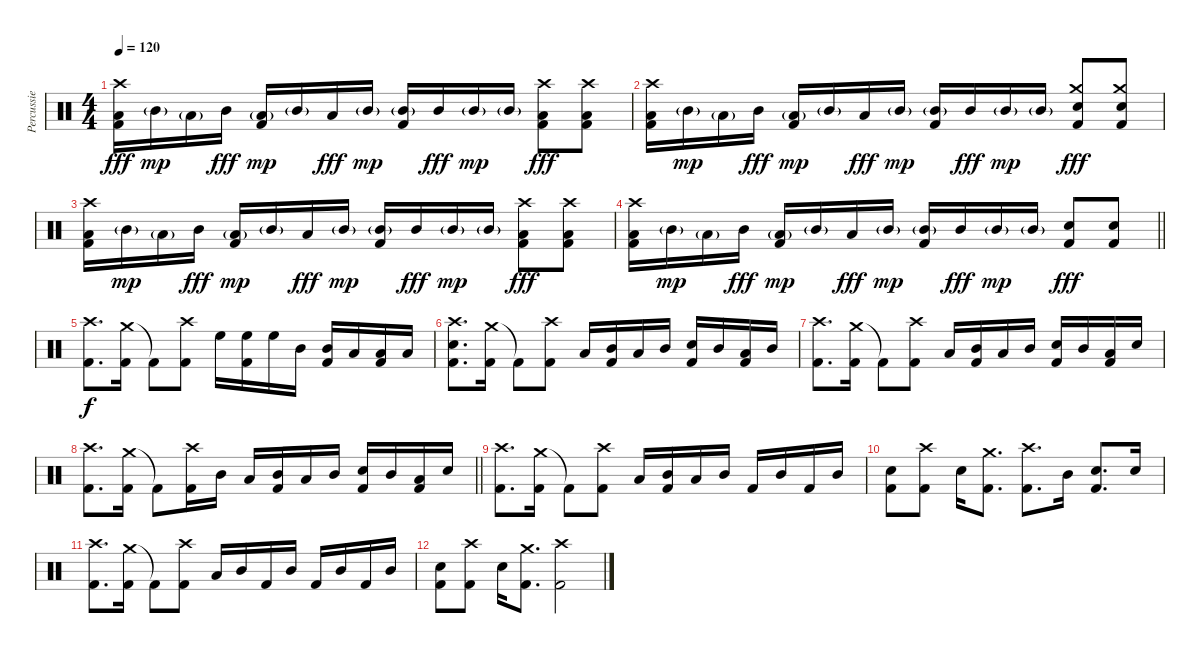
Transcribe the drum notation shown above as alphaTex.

\track ("Percussie" "Percussie") {instrument percussion}
\staff {score}
\articulation defaults
\ts (4 4)
\tempo 120
\clef neutral
\ks c
("Crash high (hit)" "Low Tom (hit)" "Kick (hit) 2").16{dy fff} "Mid Tom (hit)"{g}.16{dy mp} "Low Tom (hit)"{g}.16 "Mid Tom (hit)".16{dy fff} ("Low Tom (hit)"{g} "Kick (hit) 2").16{dy mp} "Mid Tom (hit)"{g}.16 "Low Tom (hit)".16{dy fff} "Mid Tom (hit)"{g}.16{dy mp} ("Mid Tom (hit)"{g} "Kick (hit) 2").16 "Mid Tom (hit)".16{dy fff} "Mid Tom (hit)"{g}.16{dy mp} "Mid Tom (hit)"{g}.16 ("Crash high (hit)" "Low Tom (hit)" "Kick (hit) 2").8{dy fff} ("Crash high (hit)" "Low Tom (hit)" "Kick (hit) 2").8 |
("Crash high (hit)" "Low Tom (hit)" "Kick (hit) 2").16 "Mid Tom (hit)"{g}.16{dy mp} "Low Tom (hit)"{g}.16 "Mid Tom (hit)".16{dy fff} ("Low Tom (hit)"{g} "Kick (hit) 2").16{dy mp} "Mid Tom (hit)"{g}.16 "Low Tom (hit)".16{dy fff} "Mid Tom (hit)"{g}.16{dy mp} ("Mid Tom (hit)"{g} "Kick (hit) 2").16 "Mid Tom (hit)".16{dy fff} "Mid Tom (hit)"{g}.16{dy mp} "Mid Tom (hit)"{g}.16 ("Crash medium (hit)" "Snare (hit) 2" "Kick (hit) 2").8{dy fff} ("Crash medium (hit)" "Snare (hit) 2" "Kick (hit) 2").8 |
("Crash high (hit)" "Low Tom (hit)" "Kick (hit) 2").16 "Mid Tom (hit)"{g}.16{dy mp} "Low Tom (hit)"{g}.16 "Mid Tom (hit)".16{dy fff} ("Low Tom (hit)"{g} "Kick (hit) 2").16{dy mp} "Mid Tom (hit)"{g}.16 "Low Tom (hit)".16{dy fff} "Mid Tom (hit)"{g}.16{dy mp} ("Mid Tom (hit)"{g} "Kick (hit) 2").16 "Mid Tom (hit)".16{dy fff} "Mid Tom (hit)"{g}.16{dy mp} "Mid Tom (hit)"{g}.16 ("Crash high (hit)" "Low Tom (hit)" "Kick (hit) 2").8{dy fff} ("Crash high (hit)" "Low Tom (hit)" "Kick (hit) 2").8 |
\barLineRight lightlight
("Crash high (hit)" "Low Tom (hit)" "Kick (hit) 2").16 "Mid Tom (hit)"{g}.16{dy mp} "Low Tom (hit)"{g}.16 "Mid Tom (hit)".16{dy fff} ("Low Tom (hit)"{g} "Kick (hit) 2").16{dy mp} "Mid Tom (hit)"{g}.16 "Low Tom (hit)".16{dy fff} "Mid Tom (hit)"{g}.16{dy mp} ("Mid Tom (hit)"{g} "Kick (hit) 2").16 "Mid Tom (hit)".16{dy fff} "Mid Tom (hit)"{g}.16{dy mp} "Mid Tom (hit)"{g}.16 ("Snare (hit) 2" "Kick (hit) 2").8{dy fff} ("Snare (hit) 2" "Kick (hit) 2").8 |
("Crash high (hit)" "Kick (hit) 2").8{d dy f} ("Crash medium (hit)" "Kick (hit) 2").16 "Kick (hit) 2"{t}.8 ("Crash high (hit)" "Kick (hit) 2").8 "High Floor Tom (hit)".16 ("High Floor Tom (hit)" "Kick (hit) 2").16 "High Floor Tom (hit)".16 "Mid Tom (hit)".16 ("Mid Tom (hit)" "Kick (hit) 2").16 "Low Tom (hit)".16 ("Low Tom (hit)" "Kick (hit) 2").16 "Low Tom (hit)".16 |
("Crash high (hit)" "Snare (hit) 2" "Kick (hit) 2").8{d} ("Crash medium (hit)" "Kick (hit) 2").16 "Kick (hit) 2"{t}.8 ("Crash high (hit)" "Kick (hit) 2").8 "Low Tom (hit)".16 ("Mid Tom (hit)" "Kick (hit) 2").16 "Low Tom (hit)".16 "Mid Tom (hit)".16 ("Snare (hit) 2" "Kick (hit) 2").16 "Mid Tom (hit)".16 ("Low Tom (hit)" "Kick (hit) 2").16 "Mid Tom (hit)".16 |
("Crash high (hit)" "Kick (hit) 2").8{d} ("Crash medium (hit)" "Kick (hit) 2").16 "Kick (hit) 2"{t}.8 ("Crash high (hit)" "Kick (hit) 2").8 "Low Tom (hit)".16 ("Mid Tom (hit)" "Kick (hit) 2").16 "Low Tom (hit)".16 "Mid Tom (hit)".16 ("Snare (hit) 2" "Kick (hit) 2").16 "Mid Tom (hit)".16 ("Low Tom (hit)" "Kick (hit) 2").16 "Snare (hit) 2".16 |
\barLineRight lightlight
("Crash high (hit)" "Kick (hit) 2").8{d} ("Crash medium (hit)" "Kick (hit) 2").16 "Kick (hit) 2"{t}.8 ("Crash high (hit)" "Kick (hit) 2").16 "Mid Tom (hit)".16 "Low Tom (hit)".16 ("Mid Tom (hit)" "Kick (hit) 2").16 "Low Tom (hit)".16 "Mid Tom (hit)".16 ("Snare (hit) 2" "Kick (hit) 2").16 "Mid Tom (hit)".16 ("Low Tom (hit)" "Kick (hit) 2").16 "Snare (hit) 2".16 |
("Crash high (hit)" "Kick (hit) 2").8{d} ("Crash medium (hit)" "Kick (hit) 2").16 "Kick (hit) 2"{t}.8 ("Crash high (hit)" "Kick (hit) 2").8 "Low Tom (hit)".16 ("Mid Tom (hit)" "Kick (hit) 2").16 "Low Tom (hit)".16 "Mid Tom (hit)".16 "Kick (hit) 2".16 "Mid Tom (hit)".16 "Kick (hit) 2".16 "Mid Tom (hit)".16 |
("Snare (hit) 2" "Kick (hit) 2").8 ("Crash high (hit)" "Kick (hit) 2").8 "Snare (hit) 2".16 ("Crash medium (hit)" "Kick (hit) 2").8{d} ("Crash high (hit)" "Kick (hit) 2").8{d} "Mid Tom (hit)".16 ("Snare (hit) 2" "Kick (hit) 2").8{d} "Snare (hit) 2".16 |
("Crash high (hit)" "Kick (hit) 2").8{d} ("Crash medium (hit)" "Kick (hit) 2").16 "Kick (hit) 2"{t}.8 ("Crash high (hit)" "Kick (hit) 2").8 "Low Tom (hit)".16 "Mid Tom (hit)".16 "Kick (hit) 2".16 "Mid Tom (hit)".16 "Kick (hit) 2".16 "Mid Tom (hit)".16 "Kick (hit) 2".16 "Mid Tom (hit)".16 |
("Snare (hit) 2" "Kick (hit) 2").8 ("Crash high (hit)" "Kick (hit) 2").8 "Snare (hit) 2".16 ("Crash medium (hit)" "Kick (hit) 2").8{d} ("Crash high (hit)" "Kick (hit) 2").2
